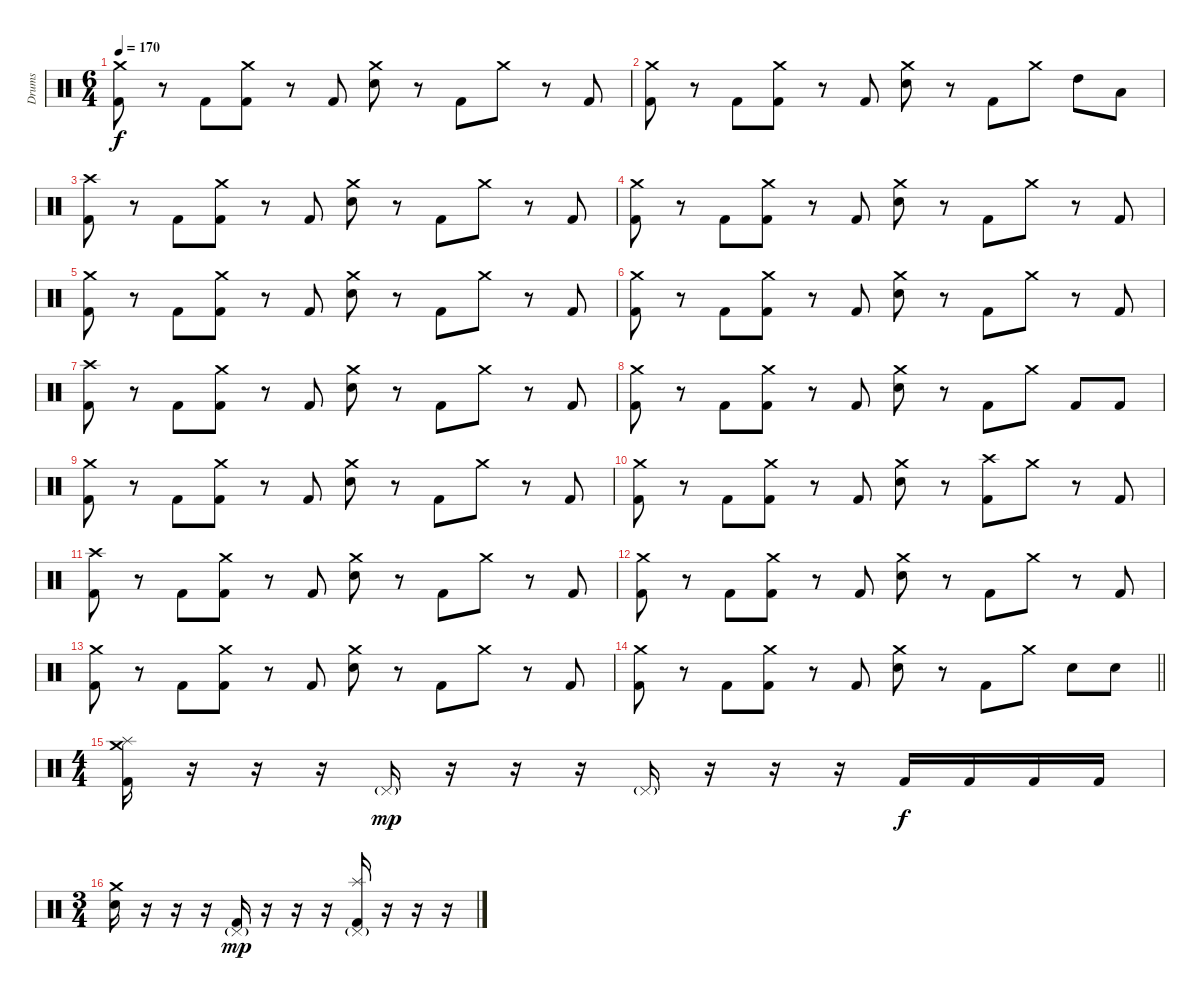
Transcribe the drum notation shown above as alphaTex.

\track ("Drums" "Drums") {instrument percussion}
\staff {score}
\articulation defaults
\ts (6 4)
\tempo 170
\clef neutral
\ks c
("Crash medium (hit)" "Kick (hit) 2").8{dy f} r.8 "Kick (hit) 2".8 ("Crash medium (hit)" "Kick (hit) 2").8 r.8 "Kick (hit) 2".8 ("Crash medium (hit)" "Electric Snare (hit)").8 r.8 "Kick (hit) 2".8 "Crash medium (hit)".8 r.8 "Kick (hit) 2".8 |
("Crash medium (hit)" "Kick (hit) 2").8 r.8 "Kick (hit) 2".8 ("Crash medium (hit)" "Kick (hit) 2").8 r.8 "Kick (hit) 2".8 ("Crash medium (hit)" "Electric Snare (hit)").8 r.8 "Kick (hit) 2".8 "Crash medium (hit)".8 "High Tom (hit)".8 "Low Tom (hit)".8 |
("Crash high (hit)" "Kick (hit) 2").8 r.8 "Kick (hit) 2".8 ("Crash medium (hit)" "Kick (hit) 2").8 r.8 "Kick (hit) 2".8 ("Crash medium (hit)" "Electric Snare (hit)").8 r.8 "Kick (hit) 2".8 "Crash medium (hit)".8 r.8 "Kick (hit) 2".8 |
("Crash medium (hit)" "Kick (hit) 2").8 r.8 "Kick (hit) 2".8 ("Crash medium (hit)" "Kick (hit) 2").8 r.8 "Kick (hit) 2".8 ("Crash medium (hit)" "Electric Snare (hit)").8 r.8 "Kick (hit) 2".8 "Crash medium (hit)".8 r.8 "Kick (hit) 2".8 |
("Crash medium (hit)" "Kick (hit) 2").8 r.8 "Kick (hit) 2".8 ("Crash medium (hit)" "Kick (hit) 2").8 r.8 "Kick (hit) 2".8 ("Crash medium (hit)" "Electric Snare (hit)").8 r.8 "Kick (hit) 2".8 "Crash medium (hit)".8 r.8 "Kick (hit) 2".8 |
("Crash medium (hit)" "Kick (hit) 2").8 r.8 "Kick (hit) 2".8 ("Crash medium (hit)" "Kick (hit) 2").8 r.8 "Kick (hit) 2".8 ("Crash medium (hit)" "Electric Snare (hit)").8 r.8 "Kick (hit) 2".8 "Crash medium (hit)".8 r.8 "Kick (hit) 2".8 |
("Crash high (hit)" "Kick (hit) 2").8 r.8 "Kick (hit) 2".8 ("Crash medium (hit)" "Kick (hit) 2").8 r.8 "Kick (hit) 2".8 ("Crash medium (hit)" "Electric Snare (hit)").8 r.8 "Kick (hit) 2".8 "Crash medium (hit)".8 r.8 "Kick (hit) 2".8 |
("Crash medium (hit)" "Kick (hit) 2").8 r.8 "Kick (hit) 2".8 ("Crash medium (hit)" "Kick (hit) 2").8 r.8 "Kick (hit) 2".8 ("Crash medium (hit)" "Electric Snare (hit)").8 r.8 "Kick (hit) 2".8 "Crash medium (hit)".8 "Kick (hit) 2".8 "Kick (hit) 2".8 |
("Crash medium (hit)" "Kick (hit) 2").8 r.8 "Kick (hit) 2".8 ("Crash medium (hit)" "Kick (hit) 2").8 r.8 "Kick (hit) 2".8 ("Crash medium (hit)" "Electric Snare (hit)").8 r.8 "Kick (hit) 2".8 "Crash medium (hit)".8 r.8 "Kick (hit) 2".8 |
("Crash medium (hit)" "Kick (hit) 2").8 r.8 "Kick (hit) 2".8 ("Crash medium (hit)" "Kick (hit) 2").8 r.8 "Kick (hit) 2".8 ("Crash medium (hit)" "Electric Snare (hit)").8 r.8 ("Crash high (hit)" "Kick (hit) 2").8 "Crash medium (hit)".8 r.8 "Kick (hit) 2".8 |
("Crash high (hit)" "Kick (hit) 2").8 r.8 "Kick (hit) 2".8 ("Crash medium (hit)" "Kick (hit) 2").8 r.8 "Kick (hit) 2".8 ("Crash medium (hit)" "Electric Snare (hit)").8 r.8 "Kick (hit) 2".8 "Crash medium (hit)".8 r.8 "Kick (hit) 2".8 |
("Crash medium (hit)" "Kick (hit) 2").8 r.8 "Kick (hit) 2".8 ("Crash medium (hit)" "Kick (hit) 2").8 r.8 "Kick (hit) 2".8 ("Crash medium (hit)" "Electric Snare (hit)").8 r.8 "Kick (hit) 2".8 "Crash medium (hit)".8 r.8 "Kick (hit) 2".8 |
("Crash medium (hit)" "Kick (hit) 2").8 r.8 "Kick (hit) 2".8 ("Crash medium (hit)" "Kick (hit) 2").8 r.8 "Kick (hit) 2".8 ("Crash medium (hit)" "Electric Snare (hit)").8 r.8 "Kick (hit) 2".8 "Crash medium (hit)".8 r.8 "Kick (hit) 2".8 |
\barLineRight lightlight
("Crash medium (hit)" "Kick (hit) 2").8 r.8 "Kick (hit) 2".8 ("Crash medium (hit)" "Kick (hit) 2").8 r.8 "Kick (hit) 2".8 ("Crash medium (hit)" "Electric Snare (hit)").8 r.8 "Kick (hit) 2".8 "Crash medium (hit)".8 "Electric Snare (hit)".8 "Electric Snare (hit)".8 |
\ts (4 4)
\section ("" "")
("Crash medium (hit)" "Splash (hit)" "Kick (hit) 2").16 r.16 r.16 r.16 "Pedal Hi-Hat (hit)"{g}.16{dy mp} r.16 r.16 r.16 "Pedal Hi-Hat (hit)"{g}.16 r.16 r.16 r.16 "Kick (hit) 2".16{dy f} "Kick (hit) 2".16 "Kick (hit) 2".16 "Kick (hit) 2".16 |
\ts (3 4)
("Crash medium (hit)" "Electric Snare (hit)").16 r.16 r.16 r.16 ("Pedal Hi-Hat (hit)"{g} "Kick (hit) 2").16{dy mp} r.16 r.16 r.16 ("Splash (hit)" "Pedal Hi-Hat (hit)"{g} "Kick (hit) 2").16 r.16 r.16 r.16
